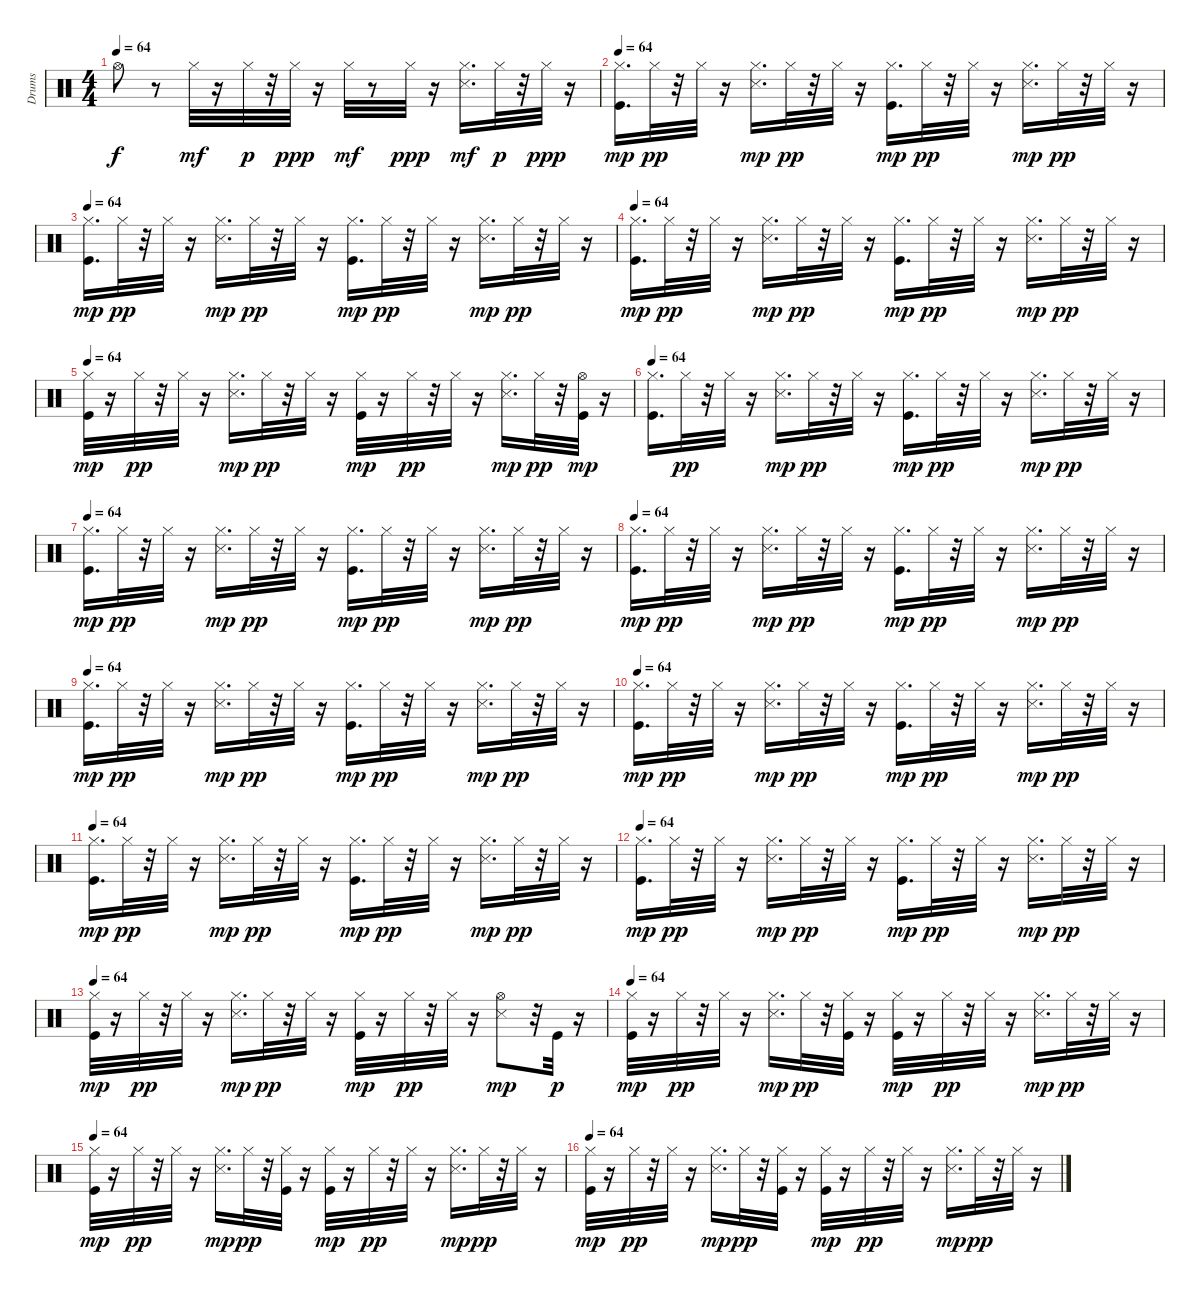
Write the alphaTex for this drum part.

\track ("Drums" "Drums") {instrument percussion}
\staff {score}
\articulation defaults
\ts (4 4)
\tempo 64
\clef neutral
\ks c "Hi-Hat (open)".8{dy f}
r.8 "Hi-Hat (closed)".32{dy mf} r.16 "Hi-Hat (closed)".32{dy p} r.32 "Hi-Hat (closed)".32{dy ppp} r.16 "Hi-Hat (closed)".32{dy mf} r.8 "Hi-Hat (closed)".32{dy ppp} r.16 ("Hi-Hat (closed)" "Snare (side stick) 3").16{d dy mf} "Hi-Hat (closed)".32{dy p} r.32 "Hi-Hat (closed)".32{dy ppp} r.16 |
\tempo 64
("Kick (hit)" "Hi-Hat (closed)").16{d dy mp} "Hi-Hat (closed)".32{dy pp} r.32 "Hi-Hat (closed)".32 r.16 ("Hi-Hat (closed)" "Snare (side stick) 3").16{d dy mp} "Hi-Hat (closed)".32{dy pp} r.32 "Hi-Hat (closed)".32 r.16 ("Kick (hit)" "Hi-Hat (closed)").16{d dy mp} "Hi-Hat (closed)".32{dy pp} r.32 "Hi-Hat (closed)".32 r.16 ("Hi-Hat (closed)" "Snare (side stick) 3").16{d dy mp} "Hi-Hat (closed)".32{dy pp} r.32 "Hi-Hat (closed)".32 r.16 |
\tempo 64
("Kick (hit)" "Hi-Hat (closed)").16{d dy mp} "Hi-Hat (closed)".32{dy pp} r.32 "Hi-Hat (closed)".32 r.16 ("Hi-Hat (closed)" "Snare (side stick) 3").16{d dy mp} "Hi-Hat (closed)".32{dy pp} r.32 "Hi-Hat (closed)".32 r.16 ("Kick (hit)" "Hi-Hat (closed)").16{d dy mp} "Hi-Hat (closed)".32{dy pp} r.32 "Hi-Hat (closed)".32 r.16 ("Hi-Hat (closed)" "Snare (side stick) 3").16{d dy mp} "Hi-Hat (closed)".32{dy pp} r.32 "Hi-Hat (closed)".32 r.16 |
\tempo 64
("Kick (hit)" "Hi-Hat (closed)").16{d dy mp} "Hi-Hat (closed)".32{dy pp} r.32 "Hi-Hat (closed)".32 r.16 ("Hi-Hat (closed)" "Snare (side stick) 3").16{d dy mp} "Hi-Hat (closed)".32{dy pp} r.32 "Hi-Hat (closed)".32 r.16 ("Kick (hit)" "Hi-Hat (closed)").16{d dy mp} "Hi-Hat (closed)".32{dy pp} r.32 "Hi-Hat (closed)".32 r.16 ("Hi-Hat (closed)" "Snare (side stick) 3").16{d dy mp} "Hi-Hat (closed)".32{dy pp} r.32 "Hi-Hat (closed)".32 r.16 |
\tempo 64
("Kick (hit)" "Hi-Hat (closed)").32{dy mp} r.16 "Hi-Hat (closed)".32{dy pp} r.32 "Hi-Hat (closed)".32 r.16 ("Hi-Hat (closed)" "Snare (side stick) 3").16{d dy mp} "Hi-Hat (closed)".32{dy pp} r.32 "Hi-Hat (closed)".32 r.16 ("Kick (hit)" "Hi-Hat (closed)").32{dy mp} r.16 "Hi-Hat (closed)".32{dy pp} r.32 "Hi-Hat (closed)".32 r.16 ("Hi-Hat (closed)" "Snare (side stick) 3").16{d dy mp} "Hi-Hat (closed)".32{dy pp} r.32 ("Kick (hit)" "Hi-Hat (open)").32{dy mp} r.16 |
\tempo 64
("Kick (hit)" "Hi-Hat (closed)").16{d} "Hi-Hat (closed)".32{dy pp} r.32 "Hi-Hat (closed)".32 r.16 ("Hi-Hat (closed)" "Snare (side stick) 3").16{d dy mp} "Hi-Hat (closed)".32{dy pp} r.32 "Hi-Hat (closed)".32 r.16 ("Kick (hit)" "Hi-Hat (closed)").16{d dy mp} "Hi-Hat (closed)".32{dy pp} r.32 "Hi-Hat (closed)".32 r.16 ("Hi-Hat (closed)" "Snare (side stick) 3").16{d dy mp} "Hi-Hat (closed)".32{dy pp} r.32 "Hi-Hat (closed)".32 r.16 |
\tempo 64
("Kick (hit)" "Hi-Hat (closed)").16{d dy mp} "Hi-Hat (closed)".32{dy pp} r.32 "Hi-Hat (closed)".32 r.16 ("Hi-Hat (closed)" "Snare (side stick) 3").16{d dy mp} "Hi-Hat (closed)".32{dy pp} r.32 "Hi-Hat (closed)".32 r.16 ("Kick (hit)" "Hi-Hat (closed)").16{d dy mp} "Hi-Hat (closed)".32{dy pp} r.32 "Hi-Hat (closed)".32 r.16 ("Hi-Hat (closed)" "Snare (side stick) 3").16{d dy mp} "Hi-Hat (closed)".32{dy pp} r.32 "Hi-Hat (closed)".32 r.16 |
\tempo 64
("Kick (hit)" "Hi-Hat (closed)").16{d dy mp} "Hi-Hat (closed)".32{dy pp} r.32 "Hi-Hat (closed)".32 r.16 ("Hi-Hat (closed)" "Snare (side stick) 3").16{d dy mp} "Hi-Hat (closed)".32{dy pp} r.32 "Hi-Hat (closed)".32 r.16 ("Kick (hit)" "Hi-Hat (closed)").16{d dy mp} "Hi-Hat (closed)".32{dy pp} r.32 "Hi-Hat (closed)".32 r.16 ("Hi-Hat (closed)" "Snare (side stick) 3").16{d dy mp} "Hi-Hat (closed)".32{dy pp} r.32 "Hi-Hat (closed)".32 r.16 |
\tempo 64
("Kick (hit)" "Hi-Hat (closed)").16{d dy mp} "Hi-Hat (closed)".32{dy pp} r.32 "Hi-Hat (closed)".32 r.16 ("Hi-Hat (closed)" "Snare (side stick) 3").16{d dy mp} "Hi-Hat (closed)".32{dy pp} r.32 "Hi-Hat (closed)".32 r.16 ("Kick (hit)" "Hi-Hat (closed)").16{d dy mp} "Hi-Hat (closed)".32{dy pp} r.32 "Hi-Hat (closed)".32 r.16 ("Hi-Hat (closed)" "Snare (side stick) 3").16{d dy mp} "Hi-Hat (closed)".32{dy pp} r.32 "Hi-Hat (closed)".32 r.16 |
\tempo 64
("Kick (hit)" "Hi-Hat (closed)").16{d dy mp} "Hi-Hat (closed)".32{dy pp} r.32 "Hi-Hat (closed)".32 r.16 ("Hi-Hat (closed)" "Snare (side stick) 3").16{d dy mp} "Hi-Hat (closed)".32{dy pp} r.32 "Hi-Hat (closed)".32 r.16 ("Kick (hit)" "Hi-Hat (closed)").16{d dy mp} "Hi-Hat (closed)".32{dy pp} r.32 "Hi-Hat (closed)".32 r.16 ("Hi-Hat (closed)" "Snare (side stick) 3").16{d dy mp} "Hi-Hat (closed)".32{dy pp} r.32 "Hi-Hat (closed)".32 r.16 |
\tempo 64
("Kick (hit)" "Hi-Hat (closed)").16{d dy mp} "Hi-Hat (closed)".32{dy pp} r.32 "Hi-Hat (closed)".32 r.16 ("Hi-Hat (closed)" "Snare (side stick) 3").16{d dy mp} "Hi-Hat (closed)".32{dy pp} r.32 "Hi-Hat (closed)".32 r.16 ("Kick (hit)" "Hi-Hat (closed)").16{d dy mp} "Hi-Hat (closed)".32{dy pp} r.32 "Hi-Hat (closed)".32 r.16 ("Hi-Hat (closed)" "Snare (side stick) 3").16{d dy mp} "Hi-Hat (closed)".32{dy pp} r.32 "Hi-Hat (closed)".32 r.16 |
\tempo 64
("Kick (hit)" "Hi-Hat (closed)").16{d dy mp} "Hi-Hat (closed)".32{dy pp} r.32 "Hi-Hat (closed)".32 r.16 ("Hi-Hat (closed)" "Snare (side stick) 3").16{d dy mp} "Hi-Hat (closed)".32{dy pp} r.32 "Hi-Hat (closed)".32 r.16 ("Kick (hit)" "Hi-Hat (closed)").16{d dy mp} "Hi-Hat (closed)".32{dy pp} r.32 "Hi-Hat (closed)".32 r.16 ("Hi-Hat (closed)" "Snare (side stick) 3").16{d dy mp} "Hi-Hat (closed)".32{dy pp} r.32 "Hi-Hat (closed)".32 r.16 |
\tempo 64
("Kick (hit)" "Hi-Hat (closed)").32{dy mp} r.16 "Hi-Hat (closed)".32{dy pp} r.32 "Hi-Hat (closed)".32 r.16 ("Hi-Hat (closed)" "Snare (side stick) 3").16{d dy mp} "Hi-Hat (closed)".32{dy pp} r.32 "Hi-Hat (closed)".32 r.16 ("Kick (hit)" "Hi-Hat (closed)").32{dy mp} r.16 "Hi-Hat (closed)".32{dy pp} r.32 "Hi-Hat (closed)".32 r.16 ("Hi-Hat (open)" "Snare (side stick) 3").8{dy mp} r.32 "Kick (hit)".32{dy p} r.16 |
\tempo 64
("Kick (hit)" "Hi-Hat (closed)").32{dy mp} r.16 "Hi-Hat (closed)".32{dy pp} r.32 "Hi-Hat (closed)".32 r.16 ("Hi-Hat (closed)" "Snare (side stick) 3").16{d dy mp} "Hi-Hat (closed)".32{dy pp} r.32 ("Kick (hit)" "Hi-Hat (closed)").32 r.16 ("Kick (hit)" "Hi-Hat (closed)").32{dy mp} r.16 "Hi-Hat (closed)".32{dy pp} r.32 "Hi-Hat (closed)".32 r.16 ("Hi-Hat (closed)" "Snare (side stick) 3").16{d dy mp} "Hi-Hat (closed)".32{dy pp} r.32 "Hi-Hat (closed)".32 r.16 |
\tempo 64
("Kick (hit)" "Hi-Hat (closed)").32{dy mp} r.16 "Hi-Hat (closed)".32{dy pp} r.32 "Hi-Hat (closed)".32 r.16 ("Hi-Hat (closed)" "Snare (side stick) 3").16{d dy mp} "Hi-Hat (closed)".32{dy pp} r.32 ("Kick (hit)" "Hi-Hat (closed)").32 r.16 ("Kick (hit)" "Hi-Hat (closed)").32{dy mp} r.16 "Hi-Hat (closed)".32{dy pp} r.32 "Hi-Hat (closed)".32 r.16 ("Hi-Hat (closed)" "Snare (side stick) 3").16{d dy mp} "Hi-Hat (closed)".32{dy pp} r.32 "Hi-Hat (closed)".32 r.16 |
\tempo 64
("Kick (hit)" "Hi-Hat (closed)").32{dy mp} r.16 "Hi-Hat (closed)".32{dy pp} r.32 "Hi-Hat (closed)".32 r.16 ("Hi-Hat (closed)" "Snare (side stick) 3").16{d dy mp} "Hi-Hat (closed)".32{dy pp} r.32 ("Kick (hit)" "Hi-Hat (closed)").32 r.16 ("Kick (hit)" "Hi-Hat (closed)").32{dy mp} r.16 "Hi-Hat (closed)".32{dy pp} r.32 "Hi-Hat (closed)".32 r.16 ("Hi-Hat (closed)" "Snare (side stick) 3").16{d dy mp} "Hi-Hat (closed)".32{dy pp} r.32 "Hi-Hat (closed)".32 r.16
